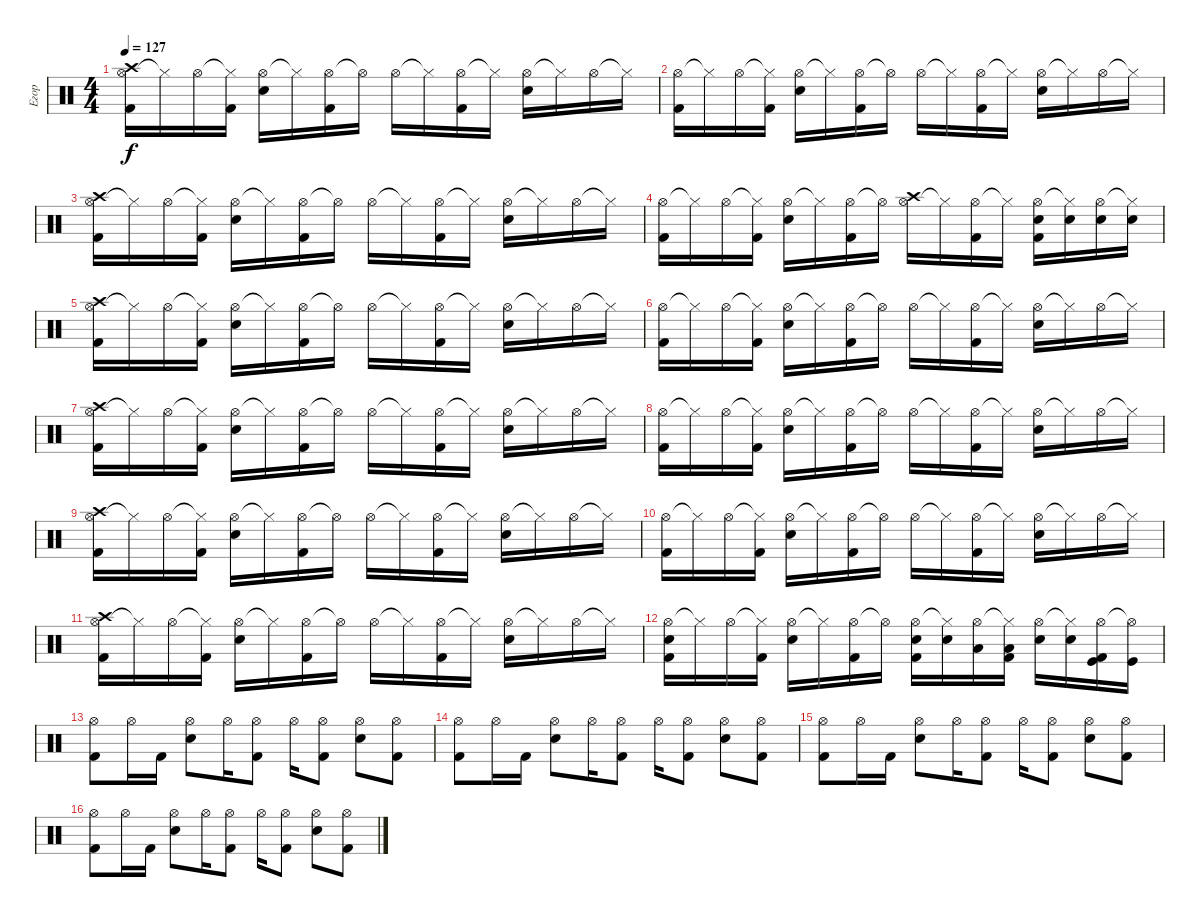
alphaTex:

\track ("Егор" "Егор") {instrument percussion}
\staff {score}
\articulation defaults
\ts (4 4)
\tempo 127
\clef neutral
\ks c
("Hi-Hat (open)" "Crash high (hit)" "Kick (hit) 2").16{dy f} "Hi-Hat (closed)"{t}.16 "Hi-Hat (open)".16 ("Hi-Hat (closed)"{t} "Kick (hit) 2").16 ("Hi-Hat (open)" "Electric Snare (hit)").16 "Hi-Hat (closed)"{t}.16 ("Hi-Hat (open)" "Kick (hit) 2").16 "Hi-Hat (open)"{t}.16 "Hi-Hat (open)".16 "Hi-Hat (closed)"{t}.16 ("Hi-Hat (open)" "Kick (hit) 2").16 "Hi-Hat (closed)"{t}.16 ("Hi-Hat (open)" "Electric Snare (hit)").16 "Hi-Hat (closed)"{t}.16 "Hi-Hat (open)".16 "Hi-Hat (closed)"{t}.16 |
("Hi-Hat (open)" "Kick (hit) 2").16 "Hi-Hat (closed)"{t}.16 "Hi-Hat (open)".16 ("Hi-Hat (closed)"{t} "Kick (hit) 2").16 ("Hi-Hat (open)" "Electric Snare (hit)").16 "Hi-Hat (closed)"{t}.16 ("Hi-Hat (open)" "Kick (hit) 2").16 "Hi-Hat (open)"{t}.16 "Hi-Hat (open)".16 "Hi-Hat (closed)"{t}.16 ("Hi-Hat (open)" "Kick (hit) 2").16 "Hi-Hat (closed)"{t}.16 ("Hi-Hat (open)" "Electric Snare (hit)").16 "Hi-Hat (closed)"{t}.16 "Hi-Hat (open)".16 "Hi-Hat (closed)"{t}.16 |
("Hi-Hat (open)" "Crash high (hit)" "Kick (hit) 2").16 "Hi-Hat (closed)"{t}.16 "Hi-Hat (open)".16 ("Hi-Hat (closed)"{t} "Kick (hit) 2").16 ("Hi-Hat (open)" "Electric Snare (hit)").16 "Hi-Hat (closed)"{t}.16 ("Hi-Hat (open)" "Kick (hit) 2").16 "Hi-Hat (open)"{t}.16 "Hi-Hat (open)".16 "Hi-Hat (closed)"{t}.16 ("Hi-Hat (open)" "Kick (hit) 2").16 "Hi-Hat (closed)"{t}.16 ("Hi-Hat (open)" "Electric Snare (hit)").16 "Hi-Hat (closed)"{t}.16 "Hi-Hat (open)".16 "Hi-Hat (closed)"{t}.16 |
("Hi-Hat (open)" "Kick (hit) 2").16 "Hi-Hat (closed)"{t}.16 "Hi-Hat (open)".16 ("Hi-Hat (closed)"{t} "Kick (hit) 2").16 ("Hi-Hat (open)" "Electric Snare (hit)").16 "Hi-Hat (closed)"{t}.16 ("Hi-Hat (open)" "Kick (hit) 2").16 "Hi-Hat (open)"{t}.16 ("Hi-Hat (open)" "Crash high (hit)").16 "Hi-Hat (closed)"{t}.16 ("Hi-Hat (open)" "Kick (hit) 2").16 "Hi-Hat (closed)"{t}.16 ("Hi-Hat (open)" "Electric Snare (hit)" "Kick (hit) 2").16 ("Hi-Hat (closed)"{t} "Electric Snare (hit)").16 ("Hi-Hat (open)" "Electric Snare (hit)").16 ("Hi-Hat (closed)"{t} "Electric Snare (hit)").16 |
("Hi-Hat (open)" "Crash high (hit)" "Kick (hit) 2").16 "Hi-Hat (closed)"{t}.16 "Hi-Hat (open)".16 ("Hi-Hat (closed)"{t} "Kick (hit) 2").16 ("Hi-Hat (open)" "Electric Snare (hit)").16 "Hi-Hat (closed)"{t}.16 ("Hi-Hat (open)" "Kick (hit) 2").16 "Hi-Hat (open)"{t}.16 "Hi-Hat (open)".16 "Hi-Hat (closed)"{t}.16 ("Hi-Hat (open)" "Kick (hit) 2").16 "Hi-Hat (closed)"{t}.16 ("Hi-Hat (open)" "Electric Snare (hit)").16 "Hi-Hat (closed)"{t}.16 "Hi-Hat (open)".16 "Hi-Hat (closed)"{t}.16 |
("Hi-Hat (open)" "Kick (hit) 2").16 "Hi-Hat (closed)"{t}.16 "Hi-Hat (open)".16 ("Hi-Hat (closed)"{t} "Kick (hit) 2").16 ("Hi-Hat (open)" "Electric Snare (hit)").16 "Hi-Hat (closed)"{t}.16 ("Hi-Hat (open)" "Kick (hit) 2").16 "Hi-Hat (open)"{t}.16 "Hi-Hat (open)".16 "Hi-Hat (closed)"{t}.16 ("Hi-Hat (open)" "Kick (hit) 2").16 "Hi-Hat (closed)"{t}.16 ("Hi-Hat (open)" "Electric Snare (hit)").16 "Hi-Hat (closed)"{t}.16 "Hi-Hat (open)".16 "Hi-Hat (closed)"{t}.16 |
("Hi-Hat (open)" "Crash high (hit)" "Kick (hit) 2").16 "Hi-Hat (closed)"{t}.16 "Hi-Hat (open)".16 ("Hi-Hat (closed)"{t} "Kick (hit) 2").16 ("Hi-Hat (open)" "Electric Snare (hit)").16 "Hi-Hat (closed)"{t}.16 ("Hi-Hat (open)" "Kick (hit) 2").16 "Hi-Hat (open)"{t}.16 "Hi-Hat (open)".16 "Hi-Hat (closed)"{t}.16 ("Hi-Hat (open)" "Kick (hit) 2").16 "Hi-Hat (closed)"{t}.16 ("Hi-Hat (open)" "Electric Snare (hit)").16 "Hi-Hat (closed)"{t}.16 "Hi-Hat (open)".16 "Hi-Hat (closed)"{t}.16 |
("Hi-Hat (open)" "Kick (hit) 2").16 "Hi-Hat (closed)"{t}.16 "Hi-Hat (open)".16 ("Hi-Hat (closed)"{t} "Kick (hit) 2").16 ("Hi-Hat (open)" "Electric Snare (hit)").16 "Hi-Hat (closed)"{t}.16 ("Hi-Hat (open)" "Kick (hit) 2").16 "Hi-Hat (open)"{t}.16 "Hi-Hat (open)".16 "Hi-Hat (closed)"{t}.16 ("Hi-Hat (open)" "Kick (hit) 2").16 "Hi-Hat (closed)"{t}.16 ("Hi-Hat (open)" "Electric Snare (hit)").16 "Hi-Hat (closed)"{t}.16 "Hi-Hat (open)".16 "Hi-Hat (closed)"{t}.16 |
("Hi-Hat (open)" "Crash high (hit)" "Kick (hit) 2").16 "Hi-Hat (closed)"{t}.16 "Hi-Hat (open)".16 ("Hi-Hat (closed)"{t} "Kick (hit) 2").16 ("Hi-Hat (open)" "Electric Snare (hit)").16 "Hi-Hat (closed)"{t}.16 ("Hi-Hat (open)" "Kick (hit) 2").16 "Hi-Hat (open)"{t}.16 "Hi-Hat (open)".16 "Hi-Hat (closed)"{t}.16 ("Hi-Hat (open)" "Kick (hit) 2").16 "Hi-Hat (closed)"{t}.16 ("Hi-Hat (open)" "Electric Snare (hit)").16 "Hi-Hat (closed)"{t}.16 "Hi-Hat (open)".16 "Hi-Hat (closed)"{t}.16 |
("Hi-Hat (open)" "Kick (hit) 2").16 "Hi-Hat (closed)"{t}.16 "Hi-Hat (open)".16 ("Hi-Hat (closed)"{t} "Kick (hit) 2").16 ("Hi-Hat (open)" "Electric Snare (hit)").16 "Hi-Hat (closed)"{t}.16 ("Hi-Hat (open)" "Kick (hit) 2").16 "Hi-Hat (open)"{t}.16 "Hi-Hat (open)".16 "Hi-Hat (closed)"{t}.16 ("Hi-Hat (open)" "Kick (hit) 2").16 "Hi-Hat (closed)"{t}.16 ("Hi-Hat (open)" "Electric Snare (hit)").16 "Hi-Hat (closed)"{t}.16 "Hi-Hat (open)".16 "Hi-Hat (closed)"{t}.16 |
("Hi-Hat (open)" "Crash high (hit)" "Kick (hit) 2").16 "Hi-Hat (closed)"{t}.16 "Hi-Hat (open)".16 ("Hi-Hat (closed)"{t} "Kick (hit) 2").16 ("Hi-Hat (open)" "Electric Snare (hit)").16 "Hi-Hat (closed)"{t}.16 ("Hi-Hat (open)" "Kick (hit) 2").16 "Hi-Hat (open)"{t}.16 "Hi-Hat (open)".16 "Hi-Hat (closed)"{t}.16 ("Hi-Hat (open)" "Kick (hit) 2").16 "Hi-Hat (closed)"{t}.16 ("Hi-Hat (open)" "Electric Snare (hit)").16 "Hi-Hat (closed)"{t}.16 "Hi-Hat (open)".16 "Hi-Hat (closed)"{t}.16 |
("Hi-Hat (open)" "Electric Snare (hit)" "Kick (hit) 2").16 "Hi-Hat (closed)"{t}.16 "Hi-Hat (open)".16 ("Hi-Hat (closed)"{t} "Kick (hit) 2").16 ("Hi-Hat (open)" "Electric Snare (hit)").16 "Hi-Hat (closed)"{t}.16 ("Hi-Hat (open)" "Kick (hit) 2").16 "Hi-Hat (open)"{t}.16 ("Hi-Hat (open)" "Electric Snare (hit)" "Kick (hit) 2").16 ("Hi-Hat (closed)"{t} "Electric Snare (hit)").16 ("Hi-Hat (open)" "Low Tom (hit)").16 ("Hi-Hat (closed)"{t} "Low Tom (hit)" "Kick (hit) 2").16 ("Hi-Hat (open)" "Electric Snare (hit)").16 ("Hi-Hat (closed)"{t} "Electric Snare (hit)").16 ("Hi-Hat (open)" "Kick (hit)" "Kick (hit) 2").16 ("Hi-Hat (open)"{t} "Kick (hit)").16 |
("Hi-Hat (open)" "Kick (hit) 2").8 "Hi-Hat (open)".16 "Kick (hit) 2".16 ("Hi-Hat (open)" "Electric Snare (hit)").8 "Hi-Hat (open)".16 ("Hi-Hat (open)" "Kick (hit) 2").8 "Hi-Hat (open)".16 ("Hi-Hat (open)" "Kick (hit) 2").8 ("Hi-Hat (open)" "Electric Snare (hit)").8 ("Hi-Hat (open)" "Kick (hit) 2").8 |
("Hi-Hat (open)" "Kick (hit) 2").8 "Hi-Hat (open)".16 "Kick (hit) 2".16 ("Hi-Hat (open)" "Electric Snare (hit)").8 "Hi-Hat (open)".16 ("Hi-Hat (open)" "Kick (hit) 2").8 "Hi-Hat (open)".16 ("Hi-Hat (open)" "Kick (hit) 2").8 ("Hi-Hat (open)" "Electric Snare (hit)").8 ("Hi-Hat (open)" "Kick (hit) 2").8 |
("Hi-Hat (open)" "Kick (hit) 2").8 "Hi-Hat (open)".16 "Kick (hit) 2".16 ("Hi-Hat (open)" "Electric Snare (hit)").8 "Hi-Hat (open)".16 ("Hi-Hat (open)" "Kick (hit) 2").8 "Hi-Hat (open)".16 ("Hi-Hat (open)" "Kick (hit) 2").8 ("Hi-Hat (open)" "Electric Snare (hit)").8 ("Hi-Hat (open)" "Kick (hit) 2").8 |
("Hi-Hat (open)" "Kick (hit) 2").8 "Hi-Hat (open)".16 "Kick (hit) 2".16 ("Hi-Hat (open)" "Electric Snare (hit)").8 "Hi-Hat (open)".16 ("Hi-Hat (open)" "Kick (hit) 2").8 "Hi-Hat (open)".16 ("Hi-Hat (open)" "Kick (hit) 2").8 ("Hi-Hat (open)" "Electric Snare (hit)").8 ("Hi-Hat (open)" "Kick (hit) 2").8
